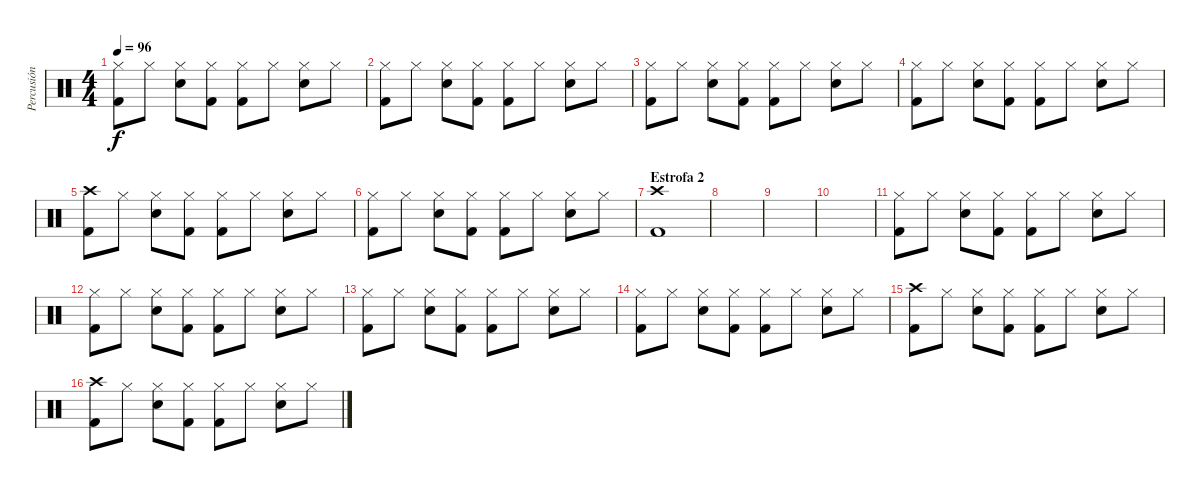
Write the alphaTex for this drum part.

\track ("Percusión" "Percusión") {instrument percussion}
\staff {score}
\articulation defaults
\ts (4 4)
\tempo 96
\clef neutral
\ks c
("Kick (hit) 2" "Hi-Hat (closed)").8{dy f} "Hi-Hat (closed)".8 ("Snare (hit) 2" "Hi-Hat (closed)").8 ("Kick (hit) 2" "Hi-Hat (closed)").8 ("Kick (hit) 2" "Hi-Hat (closed)").8 "Hi-Hat (closed)".8 ("Snare (hit) 2" "Hi-Hat (closed)").8 "Hi-Hat (closed)".8 |
("Kick (hit) 2" "Hi-Hat (closed)").8 "Hi-Hat (closed)".8 ("Snare (hit) 2" "Hi-Hat (closed)").8 ("Kick (hit) 2" "Hi-Hat (closed)").8 ("Kick (hit) 2" "Hi-Hat (closed)").8 "Hi-Hat (closed)".8 ("Snare (hit) 2" "Hi-Hat (closed)").8 "Hi-Hat (closed)".8 |
("Kick (hit) 2" "Hi-Hat (closed)").8 "Hi-Hat (closed)".8 ("Snare (hit) 2" "Hi-Hat (closed)").8 ("Kick (hit) 2" "Hi-Hat (closed)").8 ("Kick (hit) 2" "Hi-Hat (closed)").8 "Hi-Hat (closed)".8 ("Snare (hit) 2" "Hi-Hat (closed)").8 "Hi-Hat (closed)".8 |
("Kick (hit) 2" "Hi-Hat (closed)").8 "Hi-Hat (closed)".8 ("Snare (hit) 2" "Hi-Hat (closed)").8 ("Kick (hit) 2" "Hi-Hat (closed)").8 ("Kick (hit) 2" "Hi-Hat (closed)").8 "Hi-Hat (closed)".8 ("Snare (hit) 2" "Hi-Hat (closed)").8 "Hi-Hat (closed)".8 |
("Kick (hit) 2" "Crash high (hit)").8 "Hi-Hat (closed)".8 ("Snare (hit) 2" "Hi-Hat (closed)").8 ("Kick (hit) 2" "Hi-Hat (closed)").8 ("Kick (hit) 2" "Hi-Hat (closed)").8 "Hi-Hat (closed)".8 ("Snare (hit) 2" "Hi-Hat (closed)").8 "Hi-Hat (closed)".8 |
("Kick (hit) 2" "Hi-Hat (closed)").8 "Hi-Hat (closed)".8 ("Snare (hit) 2" "Hi-Hat (closed)").8 ("Kick (hit) 2" "Hi-Hat (closed)").8 ("Kick (hit) 2" "Hi-Hat (closed)").8 "Hi-Hat (closed)".8 ("Snare (hit) 2" "Hi-Hat (closed)").8 "Hi-Hat (closed)".8 |
\section ("" "Estrofa 2")
("Kick (hit) 2" "Crash high (hit)").1 |
|
|
|
("Kick (hit) 2" "Hi-Hat (closed)").8 "Hi-Hat (closed)".8 ("Snare (hit) 2" "Hi-Hat (closed)").8 ("Kick (hit) 2" "Hi-Hat (closed)").8 ("Kick (hit) 2" "Hi-Hat (closed)").8 "Hi-Hat (closed)".8 ("Snare (hit) 2" "Hi-Hat (closed)").8 "Hi-Hat (closed)".8 |
("Kick (hit) 2" "Hi-Hat (closed)").8 "Hi-Hat (closed)".8 ("Snare (hit) 2" "Hi-Hat (closed)").8 ("Kick (hit) 2" "Hi-Hat (closed)").8 ("Kick (hit) 2" "Hi-Hat (closed)").8 "Hi-Hat (closed)".8 ("Snare (hit) 2" "Hi-Hat (closed)").8 "Hi-Hat (closed)".8 |
("Kick (hit) 2" "Hi-Hat (closed)").8 "Hi-Hat (closed)".8 ("Snare (hit) 2" "Hi-Hat (closed)").8 ("Kick (hit) 2" "Hi-Hat (closed)").8 ("Kick (hit) 2" "Hi-Hat (closed)").8 "Hi-Hat (closed)".8 ("Snare (hit) 2" "Hi-Hat (closed)").8 "Hi-Hat (closed)".8 |
("Kick (hit) 2" "Hi-Hat (closed)").8 "Hi-Hat (closed)".8 ("Snare (hit) 2" "Hi-Hat (closed)").8 ("Kick (hit) 2" "Hi-Hat (closed)").8 ("Kick (hit) 2" "Hi-Hat (closed)").8 "Hi-Hat (closed)".8 ("Snare (hit) 2" "Hi-Hat (closed)").8 "Hi-Hat (closed)".8 |
("Kick (hit) 2" "Crash high (hit)").8 "Hi-Hat (closed)".8 ("Snare (hit) 2" "Hi-Hat (closed)").8 ("Kick (hit) 2" "Hi-Hat (closed)").8 ("Kick (hit) 2" "Hi-Hat (closed)").8 "Hi-Hat (closed)".8 ("Snare (hit) 2" "Hi-Hat (closed)").8 "Hi-Hat (closed)".8 |
("Kick (hit) 2" "Crash high (hit)").8 "Hi-Hat (closed)".8 ("Snare (hit) 2" "Hi-Hat (closed)").8 ("Kick (hit) 2" "Hi-Hat (closed)").8 ("Kick (hit) 2" "Hi-Hat (closed)").8 "Hi-Hat (closed)".8 ("Snare (hit) 2" "Hi-Hat (closed)").8 "Hi-Hat (closed)".8
